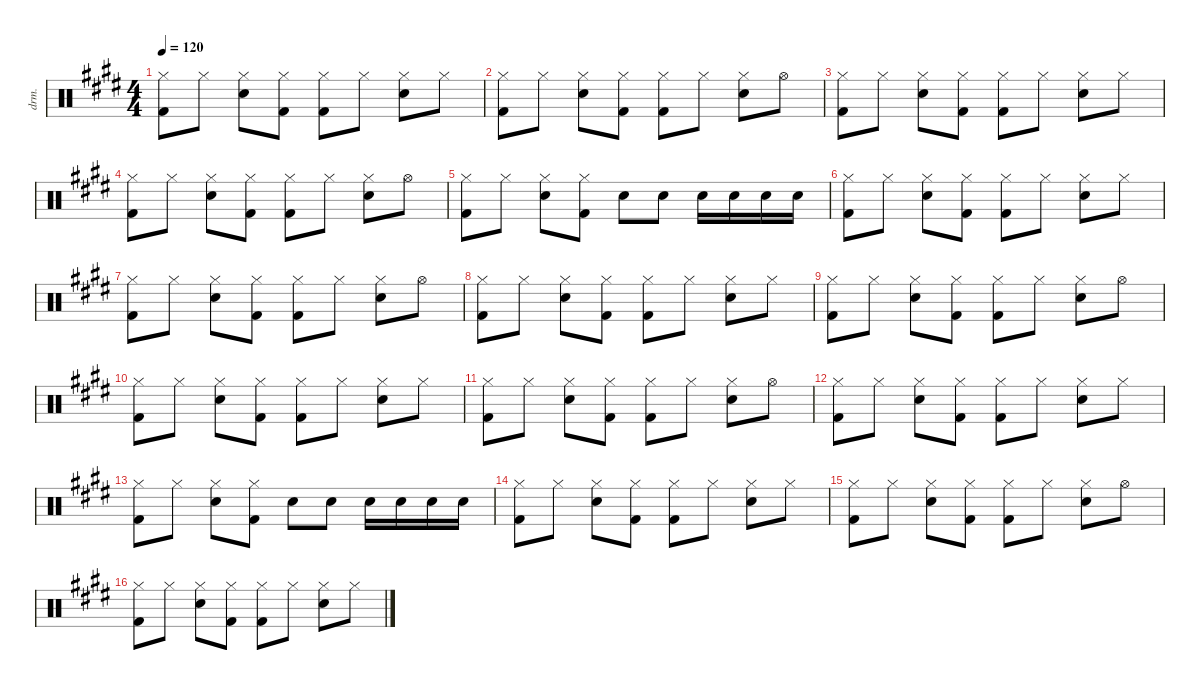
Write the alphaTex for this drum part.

\defaultSystemsLayout 4
\hideDynamics
\bracketExtendMode nobrackets
\track ("Drum" "drm.") {instrument percussion}
\staff {score}
\articulation defaults
\ts (4 4)
\tempo 120
\clef neutral
\ks e
("Hi-Hat (closed)"{acc forcenatural} "Kick (hit) 2"{acc forcenatural}).8{dy f beam Down} "Hi-Hat (closed)"{acc forcenatural}.8{beam Down} ("Hi-Hat (closed)"{acc forcenatural} "Snare (hit) 2"{acc forcenatural}).8{beam Down} ("Hi-Hat (closed)"{acc forcenatural} "Kick (hit) 2"{acc forcenatural}).8{beam Down} ("Hi-Hat (closed)"{acc forcenatural} "Kick (hit) 2"{acc forcenatural}).8{beam Down} "Hi-Hat (closed)"{acc forcenatural}.8{beam Down} ("Hi-Hat (closed)"{acc forcenatural} "Snare (hit) 2"{acc forcenatural}).8{beam Down} "Hi-Hat (closed)"{acc forcenatural}.8{beam Down} |
("Hi-Hat (closed)"{acc forcenatural} "Kick (hit) 2"{acc forcenatural}).8{beam Down} "Hi-Hat (closed)"{acc forcenatural}.8{beam Down} ("Hi-Hat (closed)"{acc forcenatural} "Snare (hit) 2"{acc forcenatural}).8{beam Down} ("Hi-Hat (closed)"{acc forcenatural} "Kick (hit) 2"{acc forcenatural}).8{beam Down} ("Hi-Hat (closed)"{acc forcenatural} "Kick (hit) 2"{acc forcenatural}).8{beam Down} "Hi-Hat (closed)"{acc forcenatural}.8{beam Down} ("Hi-Hat (closed)"{acc forcenatural} "Snare (hit) 2"{acc forcenatural}).8{beam Down} "Hi-Hat (open)"{acc forcenatural}.8{beam Down} |
("Hi-Hat (closed)"{acc forcenatural} "Kick (hit) 2"{acc forcenatural}).8{beam Down} "Hi-Hat (closed)"{acc forcenatural}.8{beam Down} ("Hi-Hat (closed)"{acc forcenatural} "Snare (hit) 2"{acc forcenatural}).8{beam Down} ("Hi-Hat (closed)"{acc forcenatural} "Kick (hit) 2"{acc forcenatural}).8{beam Down} ("Hi-Hat (closed)"{acc forcenatural} "Kick (hit) 2"{acc forcenatural}).8{beam Down} "Hi-Hat (closed)"{acc forcenatural}.8{beam Down} ("Hi-Hat (closed)"{acc forcenatural} "Snare (hit) 2"{acc forcenatural}).8{beam Down} "Hi-Hat (closed)"{acc forcenatural}.8{beam Down} |
("Hi-Hat (closed)"{acc forcenatural} "Kick (hit) 2"{acc forcenatural}).8{beam Down} "Hi-Hat (closed)"{acc forcenatural}.8{beam Down} ("Hi-Hat (closed)"{acc forcenatural} "Snare (hit) 2"{acc forcenatural}).8{beam Down} ("Hi-Hat (closed)"{acc forcenatural} "Kick (hit) 2"{acc forcenatural}).8{beam Down} ("Hi-Hat (closed)"{acc forcenatural} "Kick (hit) 2"{acc forcenatural}).8{beam Down} "Hi-Hat (closed)"{acc forcenatural}.8{beam Down} ("Hi-Hat (closed)"{acc forcenatural} "Snare (hit) 2"{acc forcenatural}).8{beam Down} "Hi-Hat (open)"{acc forcenatural}.8{beam Down} |
("Hi-Hat (closed)"{acc forcenatural} "Kick (hit) 2"{acc forcenatural}).8{beam Down} "Hi-Hat (closed)"{acc forcenatural}.8{beam Down} ("Hi-Hat (closed)"{acc forcenatural} "Snare (hit) 2"{acc forcenatural}).8{beam Down} ("Hi-Hat (closed)"{acc forcenatural} "Kick (hit) 2"{acc forcenatural}).8{beam Down} "Snare (hit) 2"{acc forcenatural}.8{beam Down} "Snare (hit) 2"{acc forcenatural}.8{beam Down} "Snare (hit) 2"{acc forcenatural}.16{beam Down} "Snare (hit) 2"{acc forcenatural}.16{beam Down} "Snare (hit) 2"{acc forcenatural}.16{beam Down} "Snare (hit) 2"{acc forcenatural}.16{beam Down} |
("Hi-Hat (closed)"{acc forcenatural} "Kick (hit) 2"{acc forcenatural}).8{beam Down} "Hi-Hat (closed)"{acc forcenatural}.8{beam Down} ("Hi-Hat (closed)"{acc forcenatural} "Snare (hit) 2"{acc forcenatural}).8{beam Down} ("Hi-Hat (closed)"{acc forcenatural} "Kick (hit) 2"{acc forcenatural}).8{beam Down} ("Hi-Hat (closed)"{acc forcenatural} "Kick (hit) 2"{acc forcenatural}).8{beam Down} "Hi-Hat (closed)"{acc forcenatural}.8{beam Down} ("Hi-Hat (closed)"{acc forcenatural} "Snare (hit) 2"{acc forcenatural}).8{beam Down} "Hi-Hat (closed)"{acc forcenatural}.8{beam Down} |
("Hi-Hat (closed)"{acc forcenatural} "Kick (hit) 2"{acc forcenatural}).8{beam Down} "Hi-Hat (closed)"{acc forcenatural}.8{beam Down} ("Hi-Hat (closed)"{acc forcenatural} "Snare (hit) 2"{acc forcenatural}).8{beam Down} ("Hi-Hat (closed)"{acc forcenatural} "Kick (hit) 2"{acc forcenatural}).8{beam Down} ("Hi-Hat (closed)"{acc forcenatural} "Kick (hit) 2"{acc forcenatural}).8{beam Down} "Hi-Hat (closed)"{acc forcenatural}.8{beam Down} ("Hi-Hat (closed)"{acc forcenatural} "Snare (hit) 2"{acc forcenatural}).8{beam Down} "Hi-Hat (open)"{acc forcenatural}.8{beam Down} |
("Hi-Hat (closed)"{acc forcenatural} "Kick (hit) 2"{acc forcenatural}).8{beam Down} "Hi-Hat (closed)"{acc forcenatural}.8{beam Down} ("Hi-Hat (closed)"{acc forcenatural} "Snare (hit) 2"{acc forcenatural}).8{beam Down} ("Hi-Hat (closed)"{acc forcenatural} "Kick (hit) 2"{acc forcenatural}).8{beam Down} ("Hi-Hat (closed)"{acc forcenatural} "Kick (hit) 2"{acc forcenatural}).8{beam Down} "Hi-Hat (closed)"{acc forcenatural}.8{beam Down} ("Hi-Hat (closed)"{acc forcenatural} "Snare (hit) 2"{acc forcenatural}).8{beam Down} "Hi-Hat (closed)"{acc forcenatural}.8{beam Down} |
("Hi-Hat (closed)"{acc forcenatural} "Kick (hit) 2"{acc forcenatural}).8{beam Down} "Hi-Hat (closed)"{acc forcenatural}.8{beam Down} ("Hi-Hat (closed)"{acc forcenatural} "Snare (hit) 2"{acc forcenatural}).8{beam Down} ("Hi-Hat (closed)"{acc forcenatural} "Kick (hit) 2"{acc forcenatural}).8{beam Down} ("Hi-Hat (closed)"{acc forcenatural} "Kick (hit) 2"{acc forcenatural}).8{beam Down} "Hi-Hat (closed)"{acc forcenatural}.8{beam Down} ("Hi-Hat (closed)"{acc forcenatural} "Snare (hit) 2"{acc forcenatural}).8{beam Down} "Hi-Hat (open)"{acc forcenatural}.8{beam Down} |
("Hi-Hat (closed)"{acc forcenatural} "Kick (hit) 2"{acc forcenatural}).8{beam Down} "Hi-Hat (closed)"{acc forcenatural}.8{beam Down} ("Hi-Hat (closed)"{acc forcenatural} "Snare (hit) 2"{acc forcenatural}).8{beam Down} ("Hi-Hat (closed)"{acc forcenatural} "Kick (hit) 2"{acc forcenatural}).8{beam Down} ("Hi-Hat (closed)"{acc forcenatural} "Kick (hit) 2"{acc forcenatural}).8{beam Down} "Hi-Hat (closed)"{acc forcenatural}.8{beam Down} ("Hi-Hat (closed)"{acc forcenatural} "Snare (hit) 2"{acc forcenatural}).8{beam Down} "Hi-Hat (closed)"{acc forcenatural}.8{beam Down} |
("Hi-Hat (closed)"{acc forcenatural} "Kick (hit) 2"{acc forcenatural}).8{beam Down} "Hi-Hat (closed)"{acc forcenatural}.8{beam Down} ("Hi-Hat (closed)"{acc forcenatural} "Snare (hit) 2"{acc forcenatural}).8{beam Down} ("Hi-Hat (closed)"{acc forcenatural} "Kick (hit) 2"{acc forcenatural}).8{beam Down} ("Hi-Hat (closed)"{acc forcenatural} "Kick (hit) 2"{acc forcenatural}).8{beam Down} "Hi-Hat (closed)"{acc forcenatural}.8{beam Down} ("Hi-Hat (closed)"{acc forcenatural} "Snare (hit) 2"{acc forcenatural}).8{beam Down} "Hi-Hat (open)"{acc forcenatural}.8{beam Down} |
("Hi-Hat (closed)"{acc forcenatural} "Kick (hit) 2"{acc forcenatural}).8{beam Down} "Hi-Hat (closed)"{acc forcenatural}.8{beam Down} ("Hi-Hat (closed)"{acc forcenatural} "Snare (hit) 2"{acc forcenatural}).8{beam Down} ("Hi-Hat (closed)"{acc forcenatural} "Kick (hit) 2"{acc forcenatural}).8{beam Down} ("Hi-Hat (closed)"{acc forcenatural} "Kick (hit) 2"{acc forcenatural}).8{beam Down} "Hi-Hat (closed)"{acc forcenatural}.8{beam Down} ("Hi-Hat (closed)"{acc forcenatural} "Snare (hit) 2"{acc forcenatural}).8{beam Down} "Hi-Hat (closed)"{acc forcenatural}.8{beam Down} |
("Hi-Hat (closed)"{acc forcenatural} "Kick (hit) 2"{acc forcenatural}).8{beam Down} "Hi-Hat (closed)"{acc forcenatural}.8{beam Down} ("Hi-Hat (closed)"{acc forcenatural} "Snare (hit) 2"{acc forcenatural}).8{beam Down} ("Hi-Hat (closed)"{acc forcenatural} "Kick (hit) 2"{acc forcenatural}).8{beam Down} "Snare (hit) 2"{acc forcenatural}.8{beam Down} "Snare (hit) 2"{acc forcenatural}.8{beam Down} "Snare (hit) 2"{acc forcenatural}.16{beam Down} "Snare (hit) 2"{acc forcenatural}.16{beam Down} "Snare (hit) 2"{acc forcenatural}.16{beam Down} "Snare (hit) 2"{acc forcenatural}.16{beam Down} |
("Hi-Hat (closed)"{acc forcenatural} "Kick (hit) 2"{acc forcenatural}).8{beam Down} "Hi-Hat (closed)"{acc forcenatural}.8{beam Down} ("Hi-Hat (closed)"{acc forcenatural} "Snare (hit) 2"{acc forcenatural}).8{beam Down} ("Hi-Hat (closed)"{acc forcenatural} "Kick (hit) 2"{acc forcenatural}).8{beam Down} ("Hi-Hat (closed)"{acc forcenatural} "Kick (hit) 2"{acc forcenatural}).8{beam Down} "Hi-Hat (closed)"{acc forcenatural}.8{beam Down} ("Hi-Hat (closed)"{acc forcenatural} "Snare (hit) 2"{acc forcenatural}).8{beam Down} "Hi-Hat (closed)"{acc forcenatural}.8{beam Down} |
("Hi-Hat (closed)"{acc forcenatural} "Kick (hit) 2"{acc forcenatural}).8{beam Down} "Hi-Hat (closed)"{acc forcenatural}.8{beam Down} ("Hi-Hat (closed)"{acc forcenatural} "Snare (hit) 2"{acc forcenatural}).8{beam Down} ("Hi-Hat (closed)"{acc forcenatural} "Kick (hit) 2"{acc forcenatural}).8{beam Down} ("Hi-Hat (closed)"{acc forcenatural} "Kick (hit) 2"{acc forcenatural}).8{beam Down} "Hi-Hat (closed)"{acc forcenatural}.8{beam Down} ("Hi-Hat (closed)"{acc forcenatural} "Snare (hit) 2"{acc forcenatural}).8{beam Down} "Hi-Hat (open)"{acc forcenatural}.8{beam Down} |
("Hi-Hat (closed)"{acc forcenatural} "Kick (hit) 2"{acc forcenatural}).8{beam Down} "Hi-Hat (closed)"{acc forcenatural}.8{beam Down} ("Hi-Hat (closed)"{acc forcenatural} "Snare (hit) 2"{acc forcenatural}).8{beam Down} ("Hi-Hat (closed)"{acc forcenatural} "Kick (hit) 2"{acc forcenatural}).8{beam Down} ("Hi-Hat (closed)"{acc forcenatural} "Kick (hit) 2"{acc forcenatural}).8{beam Down} "Hi-Hat (closed)"{acc forcenatural}.8{beam Down} ("Hi-Hat (closed)"{acc forcenatural} "Snare (hit) 2"{acc forcenatural}).8{beam Down} "Hi-Hat (closed)"{acc forcenatural}.8{beam Down}
